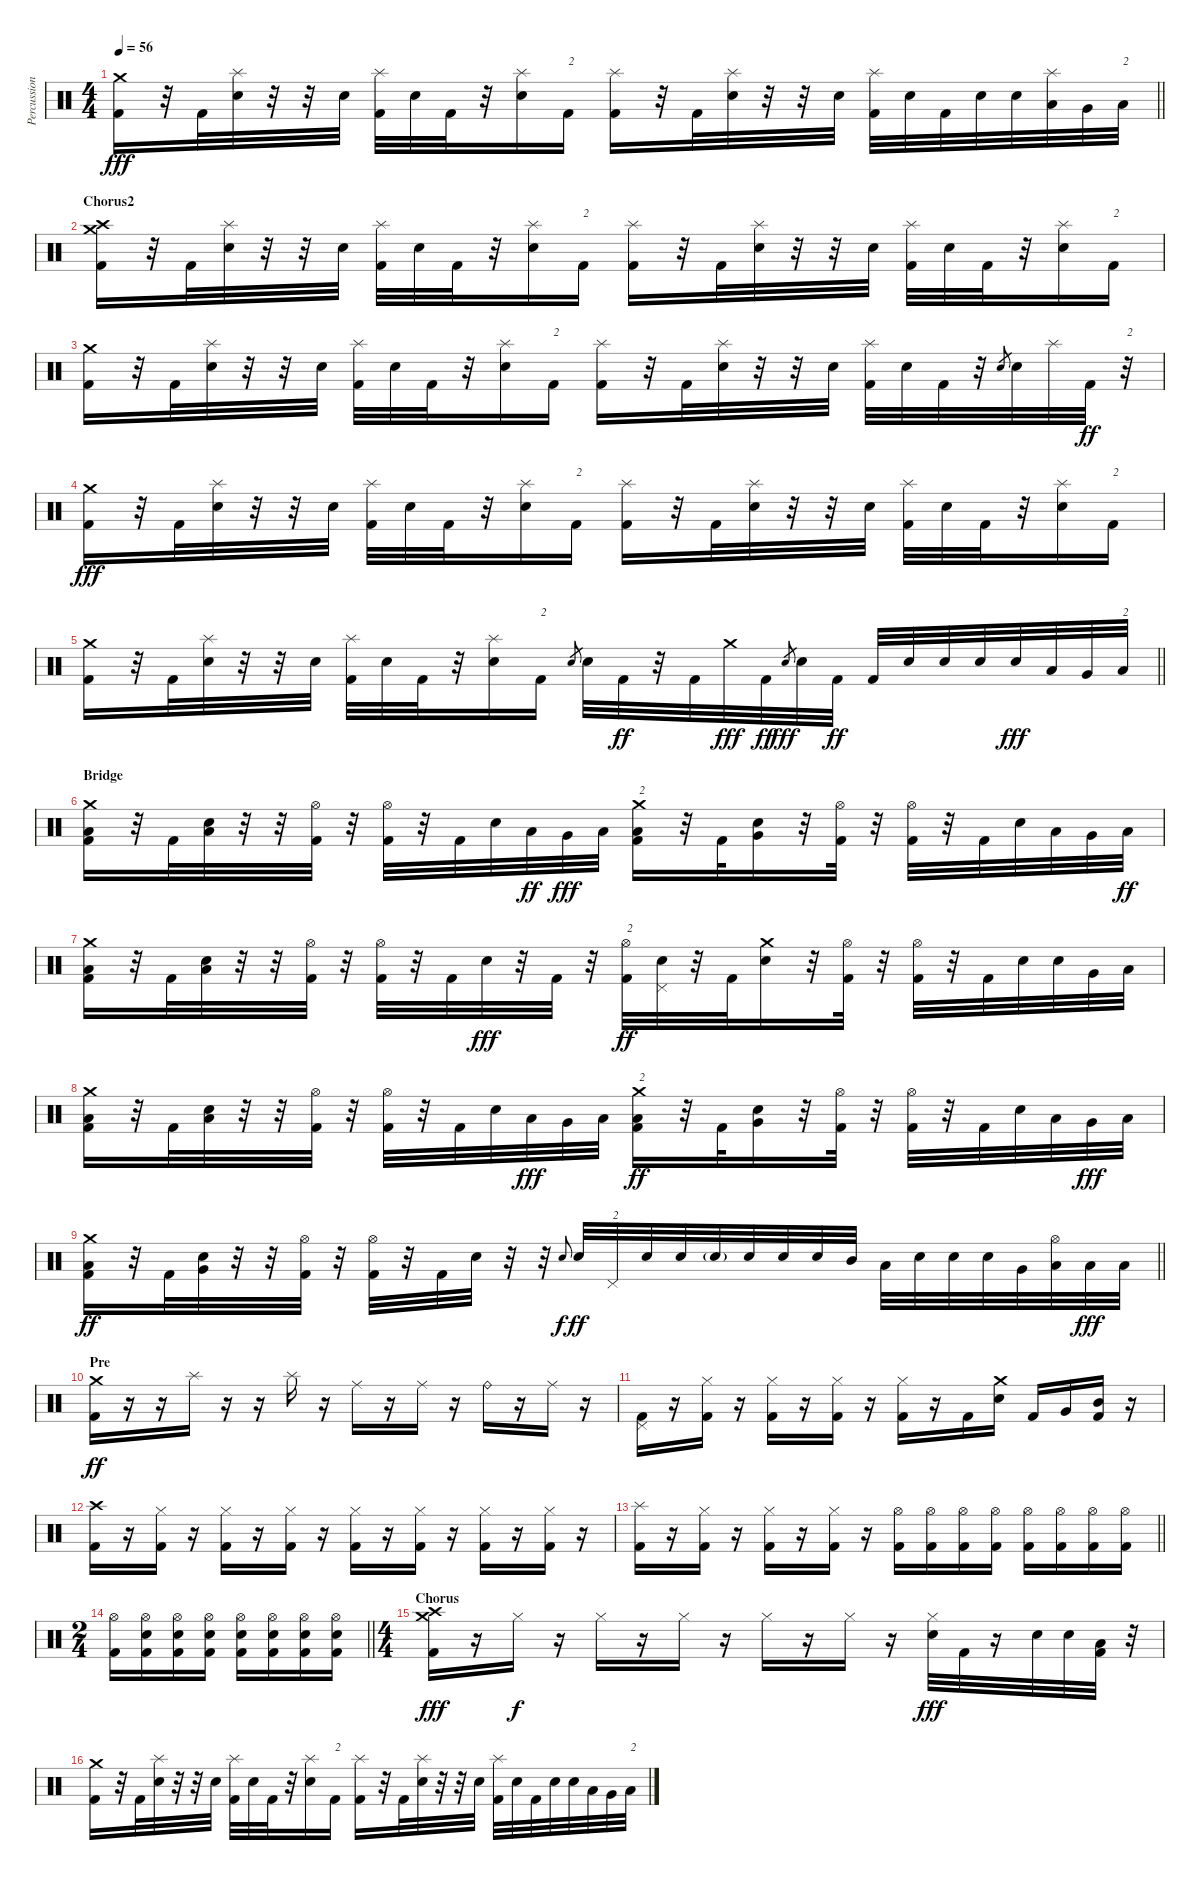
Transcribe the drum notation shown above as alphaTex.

\track ("Percussion" "Percussion") {instrument percussion}
\staff {score}
\articulation defaults
\ts (4 4)
\tempo 56
\clef neutral
\barLineRight lightlight
\ks c
("Crash medium (hit)" "Kick (hit) 2").16{dy fff} r.32 "Kick (hit) 2".32 ("Splash (hit)" "Electric Snare (hit)").32 r.32 r.32 "Electric Snare (hit)".32 ("Splash (hit)" "Kick (hit) 2").32 "Electric Snare (hit)".32 "Kick (hit) 2".32 r.32 ("Splash (hit)" "Electric Snare (hit)").16 "Kick (hit) 2".16{txt "2"} ("Splash (hit)" "Kick (hit) 2").16 r.32 "Kick (hit) 2".32 ("Splash (hit)" "Electric Snare (hit)").32 r.32 r.32 "Electric Snare (hit)".32 ("Splash (hit)" "Kick (hit) 2").32 "Electric Snare (hit)".32 "Kick (hit) 2".32 "Electric Snare (hit)".32 "Electric Snare (hit)".32 ("Splash (hit)" "Low Tom (hit)").32 "Very Low Tom (hit)".32 "Low Floor Tom (hit)".32{txt "2"} |
\section ("" "Chorus2")
("Crash medium (hit)" "Crash high (hit)" "Kick (hit) 2").16 r.32 "Kick (hit) 2".32 ("Splash (hit)" "Electric Snare (hit)").32 r.32 r.32 "Electric Snare (hit)".32 ("Splash (hit)" "Kick (hit) 2").32 "Electric Snare (hit)".32 "Kick (hit) 2".32 r.32 ("Splash (hit)" "Electric Snare (hit)").16 "Kick (hit) 2".16{txt "2"} ("Splash (hit)" "Kick (hit) 2").16 r.32 "Kick (hit) 2".32 ("Splash (hit)" "Electric Snare (hit)").32 r.32 r.32 "Electric Snare (hit)".32 ("Splash (hit)" "Kick (hit) 2").32 "Electric Snare (hit)".32 "Kick (hit) 2".32 r.32 ("Splash (hit)" "Electric Snare (hit)").16 "Kick (hit) 2".16{txt "2"} |
("Crash medium (hit)" "Kick (hit) 2").16 r.32 "Kick (hit) 2".32 ("Splash (hit)" "Electric Snare (hit)").32 r.32 r.32 "Electric Snare (hit)".32 ("Splash (hit)" "Kick (hit) 2").32 "Electric Snare (hit)".32 "Kick (hit) 2".32 r.32 ("Splash (hit)" "Electric Snare (hit)").16 "Kick (hit) 2".16{txt "2"} ("Splash (hit)" "Kick (hit) 2").16 r.32 "Kick (hit) 2".32 ("Splash (hit)" "Electric Snare (hit)").32 r.32 r.32 "Electric Snare (hit)".32 ("Splash (hit)" "Kick (hit) 2").32 "Electric Snare (hit)".32 "Kick (hit) 2".32 r.32 "Electric Snare (hit)".8{gr} "Electric Snare (hit)".32 "Splash (hit)".32 "Kick (hit) 2".32{dy ff} r.32{txt "2"} |
("Crash medium (hit)" "Kick (hit) 2").16{dy fff} r.32 "Kick (hit) 2".32 ("Splash (hit)" "Electric Snare (hit)").32 r.32 r.32 "Electric Snare (hit)".32 ("Splash (hit)" "Kick (hit) 2").32 "Electric Snare (hit)".32 "Kick (hit) 2".32 r.32 ("Splash (hit)" "Electric Snare (hit)").16 "Kick (hit) 2".16{txt "2"} ("Splash (hit)" "Kick (hit) 2").16 r.32 "Kick (hit) 2".32 ("Splash (hit)" "Electric Snare (hit)").32 r.32 r.32 "Electric Snare (hit)".32 ("Splash (hit)" "Kick (hit) 2").32 "Electric Snare (hit)".32 "Kick (hit) 2".32 r.32 ("Splash (hit)" "Electric Snare (hit)").16 "Kick (hit) 2".16{txt "2"} |
\barLineRight lightlight
("Crash medium (hit)" "Kick (hit) 2").16 r.32 "Kick (hit) 2".32 ("Splash (hit)" "Electric Snare (hit)").32 r.32 r.32 "Electric Snare (hit)".32 ("Splash (hit)" "Kick (hit) 2").32 "Electric Snare (hit)".32 "Kick (hit) 2".32 r.32 ("Splash (hit)" "Electric Snare (hit)").16 "Kick (hit) 2".16{txt "2"} "Electric Snare (hit)".8{gr} "Electric Snare (hit)".32 "Kick (hit) 2".32{dy ff} r.32 "Kick (hit) 2".32 "Crash medium (hit)".32{dy fff} "Kick (hit) 2".32{dy ff} "Electric Snare (hit)".8{gr dy fff} "Electric Snare (hit)".32 "Kick (hit) 2".32{dy ff} "Kick (hit) 2".32 "Electric Snare (hit)".32 "Electric Snare (hit)".32 "Electric Snare (hit)".32 "Electric Snare (hit)".32{dy fff} "Low Tom (hit)".32 "Very Low Tom (hit)".32 "Low Floor Tom (hit)".32{txt "2"} |
\section ("" "Bridge")
("Crash medium (hit)" "Low Tom (hit)" "Kick (hit) 2").16 r.32 "Kick (hit) 2".32 ("Electric Snare (hit)" "Low Tom (hit)").32 r.32 r.32 ("Hi-Hat (open)" "Kick (hit) 2").32 r.32 ("Hi-Hat (open)" "Kick (hit) 2").32 r.32 "Kick (hit) 2".32 "Electric Snare (hit)".32 "Low Tom (hit)".32{dy ff} "Very Low Tom (hit)".32{dy fff} "Low Floor Tom (hit)".32 ("Crash medium (hit)" "Low Tom (hit)" "Kick (hit) 2").16{txt "2"} r.32 "Kick (hit) 2".32 ("Electric Snare (hit)" "Very Low Tom (hit)").16 r.32 ("Hi-Hat (open)" "Kick (hit) 2").32 r.32 ("Hi-Hat (open)" "Kick (hit) 2").32 r.32 "Kick (hit) 2".32 "Electric Snare (hit)".32 "Low Tom (hit)".32 "Very Low Tom (hit)".32 "Low Floor Tom (hit)".32{dy ff} |
("Crash medium (hit)" "Low Tom (hit)" "Kick (hit) 2").16 r.32 "Kick (hit) 2".32 ("Electric Snare (hit)" "Low Tom (hit)").32 r.32 r.32 ("Hi-Hat (open)" "Kick (hit) 2").32 r.32 ("Hi-Hat (open)" "Kick (hit) 2").32 r.32 "Kick (hit) 2".32 "Electric Snare (hit)".32{dy fff} r.32 "Kick (hit) 2".32 r.32 ("Hi-Hat (open)" "Kick (hit) 2").32{txt "2" dy ff} ("Pedal Hi-Hat (hit)" "Electric Snare (hit)").32 r.32 "Kick (hit) 2".32 ("Crash medium (hit)" "Electric Snare (hit)").16 r.32 ("Hi-Hat (open)" "Kick (hit) 2").32 r.32 ("Hi-Hat (open)" "Kick (hit) 2").32 r.32 "Kick (hit) 2".32 "Electric Snare (hit)".32 "Electric Snare (hit)".32 "Very Low Tom (hit)".32 "Low Floor Tom (hit)".32 |
("Crash medium (hit)" "Low Tom (hit)" "Kick (hit) 2").16 r.32 "Kick (hit) 2".32 ("Electric Snare (hit)" "Low Tom (hit)").32 r.32 r.32 ("Hi-Hat (open)" "Kick (hit) 2").32 r.32 ("Hi-Hat (open)" "Kick (hit) 2").32 r.32 "Kick (hit) 2".32 "Electric Snare (hit)".32 "Low Tom (hit)".32{dy fff} "Very Low Tom (hit)".32 "Low Floor Tom (hit)".32 ("Crash medium (hit)" "Low Tom (hit)" "Kick (hit) 2").16{txt "2" dy ff} r.32 "Kick (hit) 2".32 ("Electric Snare (hit)" "Very Low Tom (hit)").16 r.32 ("Hi-Hat (open)" "Kick (hit) 2").32 r.32 ("Hi-Hat (open)" "Kick (hit) 2").32 r.32 "Kick (hit) 2".32 "Electric Snare (hit)".32 "Low Tom (hit)".32 "Very Low Tom (hit)".32{dy fff} "Low Floor Tom (hit)".32 |
\barLineRight lightlight
("Crash medium (hit)" "Low Tom (hit)" "Kick (hit) 2").16{dy ff} r.32 "Kick (hit) 2".32 ("Electric Snare (hit)" "Very Low Tom (hit)").32 r.32 r.32 ("Hi-Hat (open)" "Kick (hit) 2").32 r.32 ("Hi-Hat (open)" "Kick (hit) 2").32 r.32 "Kick (hit) 2".32 "Electric Snare (hit)".32 r.32 r.32 "Electric Snare (hit)".8{gr onbeat dy f} "Electric Snare (hit)".32{dy ff} "Pedal Hi-Hat (hit)".32{txt "2"} "Electric Snare (hit)".32 "Electric Snare (hit)".32 "Electric Snare (hit)"{g}.32 "Electric Snare (hit)".32 "Electric Snare (hit)".32 "Electric Snare (hit)".32 "Mid Tom (hit)".32 "Low Tom (hit)".32 "Electric Snare (hit)".32 "Electric Snare (hit)".32 "Electric Snare (hit)".32 "Very Low Tom (hit)".32 ("Hi-Hat (open)" "Low Floor Tom (hit)").32 "Low Floor Tom (hit)".32{dy fff} "Low Floor Tom (hit)".32 |
\section ("" "Pre")
("Crash medium (hit)" "Kick (hit) 2").16{dy ff} r.16 r.16 "Splash (hit)".16 r.16 r.16 "Splash (hit)".16 r.16 "Ride (middle)".16 r.16 "Ride (middle)".16 r.16 "Ride (bell)".16 r.16 "Ride (middle)".16 r.16 |
("Pedal Hi-Hat (hit)" "Kick (hit) 2").16 r.16 ("Hi-Hat (closed)" "Kick (hit) 2").16 r.16 ("Hi-Hat (closed)" "Kick (hit) 2").16 r.16 ("Hi-Hat (closed)" "Kick (hit) 2").16 r.16 ("Hi-Hat (closed)" "Kick (hit) 2").16 r.16 "Kick (hit) 2".16 ("Crash medium (hit)" "Electric Snare (hit)").16 "Kick (hit) 2".16 "Very Low Tom (hit)".16 ("Mid Tom (hit)" "Kick (hit) 2").16 r.16 |
("Crash high (hit)" "Kick (hit) 2").16 r.16 ("Hi-Hat (closed)" "Kick (hit) 2").16 r.16 ("Hi-Hat (closed)" "Kick (hit) 2").16 r.16 ("Hi-Hat (closed)" "Kick (hit) 2").16 r.16 ("Hi-Hat (closed)" "Kick (hit) 2").16 r.16 ("Hi-Hat (closed)" "Kick (hit) 2").16 r.16 ("Hi-Hat (closed)" "Kick (hit) 2").16 r.16 ("Hi-Hat (closed)" "Kick (hit) 2").16 r.16 |
\barLineRight lightlight
("Splash (hit)" "Kick (hit) 2").16 r.16 ("Hi-Hat (closed)" "Kick (hit) 2").16 r.16 ("Hi-Hat (closed)" "Kick (hit) 2").16 r.16 ("Hi-Hat (closed)" "Kick (hit) 2").16 r.16 ("Hi-Hat (open)" "Kick (hit) 2").16 ("Hi-Hat (open)" "Kick (hit) 2").16 ("Hi-Hat (open)" "Kick (hit) 2").16 ("Hi-Hat (open)" "Kick (hit) 2").16 ("Hi-Hat (open)" "Kick (hit) 2").16 ("Hi-Hat (open)" "Kick (hit) 2").16 ("Hi-Hat (open)" "Kick (hit) 2").16 ("Hi-Hat (open)" "Kick (hit) 2").16 |
\ts (2 4)
\barLineRight lightlight
("Hi-Hat (open)" "Kick (hit) 2").16 ("Hi-Hat (open)" "Electric Snare (hit)" "Kick (hit) 2").16 ("Hi-Hat (open)" "Electric Snare (hit)" "Kick (hit) 2").16 ("Hi-Hat (open)" "Electric Snare (hit)" "Kick (hit) 2").16 ("Hi-Hat (open)" "Electric Snare (hit)" "Kick (hit) 2").16 ("Hi-Hat (open)" "Electric Snare (hit)" "Kick (hit) 2").16 ("Hi-Hat (open)" "Electric Snare (hit)" "Kick (hit) 2").16 ("Hi-Hat (open)" "Electric Snare (hit)" "Kick (hit) 2").16 |
\ts (4 4)
\section ("" "Chorus")
("Crash medium (hit)" "Crash high (hit)" "Kick (hit) 2").16{dy fff} r.16 "Hi-Hat (closed)".16{dy f} r.16 "Hi-Hat (closed)".16 r.16 "Hi-Hat (closed)".16 r.16 "Hi-Hat (closed)".16 r.16 "Hi-Hat (closed)".16 r.16 ("Hi-Hat (closed)" "Electric Snare (hit)").32{dy fff} "Kick (hit) 2".32 r.16 "Electric Snare (hit)".32 "Electric Snare (hit)".32 ("Low Floor Tom (hit)" "Kick (hit) 2").32 r.32 |
("Crash medium (hit)" "Kick (hit) 2").16 r.32 "Kick (hit) 2".32 ("Splash (hit)" "Electric Snare (hit)").32 r.32 r.32 "Electric Snare (hit)".32 ("Splash (hit)" "Kick (hit) 2").32 "Electric Snare (hit)".32 "Kick (hit) 2".32 r.32 ("Splash (hit)" "Electric Snare (hit)").16 "Kick (hit) 2".16{txt "2"} ("Splash (hit)" "Kick (hit) 2").16 r.32 "Kick (hit) 2".32 ("Splash (hit)" "Electric Snare (hit)").32 r.32 r.32 "Electric Snare (hit)".32 ("Splash (hit)" "Kick (hit) 2").32 "Electric Snare (hit)".32 "Kick (hit) 2".32 "Electric Snare (hit)".32 "Electric Snare (hit)".32 "Low Tom (hit)".32 "Very Low Tom (hit)".32 "Low Floor Tom (hit)".32{txt "2"}
